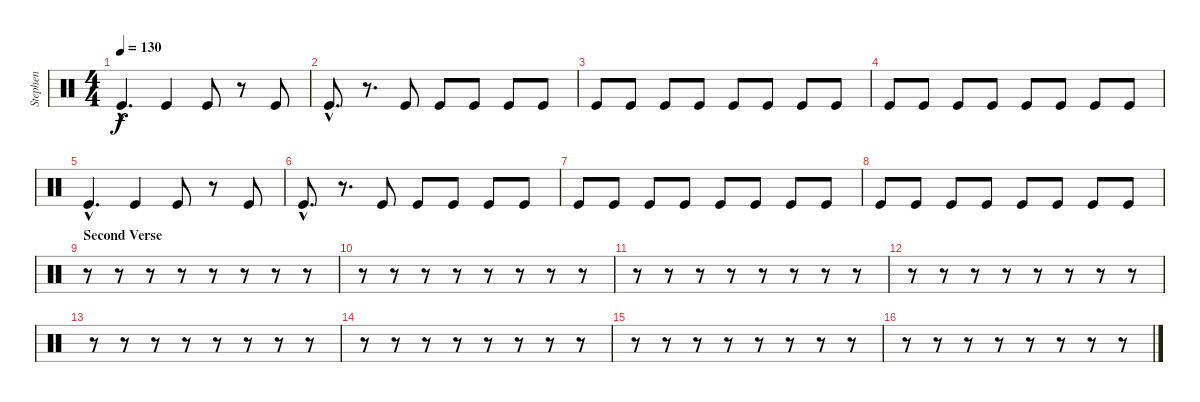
\track ("Stephen" "Stephen") {instrument percussion}
\staff {score}
\articulation defaults
\ts (4 4)
\tempo 130
\clef neutral
\ks c "Kick (hit)"{hac}.4{d dy f} "Kick (hit)".4 "Kick (hit)".8
r.8 "Kick (hit)".8 |
"Kick (hit)"{hac}.8{d} r.8{d} "Kick (hit)".8 "Kick (hit)".8 "Kick (hit)".8 "Kick (hit)".8 "Kick (hit)".8 |
"Kick (hit)".8 "Kick (hit)".8 "Kick (hit)".8 "Kick (hit)".8 "Kick (hit)".8 "Kick (hit)".8 "Kick (hit)".8 "Kick (hit)".8 |
"Kick (hit)".8 "Kick (hit)".8 "Kick (hit)".8 "Kick (hit)".8 "Kick (hit)".8 "Kick (hit)".8 "Kick (hit)".8 "Kick (hit)".8 |
"Kick (hit)"{hac}.4{d} "Kick (hit)".4 "Kick (hit)".8 r.8 "Kick (hit)".8 |
"Kick (hit)"{hac}.8{d} r.8{d} "Kick (hit)".8 "Kick (hit)".8 "Kick (hit)".8 "Kick (hit)".8 "Kick (hit)".8 |
"Kick (hit)".8 "Kick (hit)".8 "Kick (hit)".8 "Kick (hit)".8 "Kick (hit)".8 "Kick (hit)".8 "Kick (hit)".8 "Kick (hit)".8 |
"Kick (hit)".8 "Kick (hit)".8 "Kick (hit)".8 "Kick (hit)".8 "Kick (hit)".8 "Kick (hit)".8 "Kick (hit)".8 "Kick (hit)".8 |
\section ("" "Second Verse")
r.8 r.8 r.8 r.8 r.8 r.8 r.8 r.8 |
r.8 r.8 r.8 r.8 r.8 r.8 r.8 r.8 |
r.8 r.8 r.8 r.8 r.8 r.8 r.8 r.8 |
r.8 r.8 r.8 r.8 r.8 r.8 r.8 r.8 |
r.8 r.8 r.8 r.8 r.8 r.8 r.8 r.8 |
r.8 r.8 r.8 r.8 r.8 r.8 r.8 r.8 |
r.8 r.8 r.8 r.8 r.8 r.8 r.8 r.8 |
r.8 r.8 r.8 r.8 r.8 r.8 r.8 r.8
